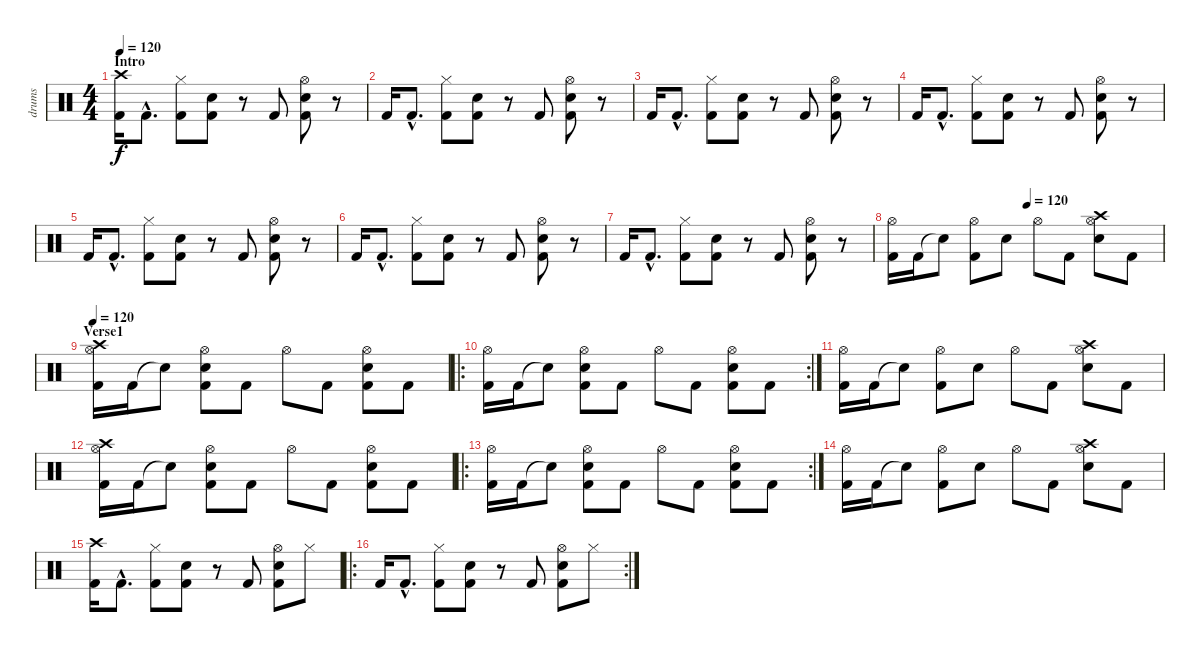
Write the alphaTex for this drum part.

\track ("drums" "drums") {instrument percussion}
\staff {score}
\articulation defaults
\ts (4 4)
\section ("" "Intro")
\tempo 120
\clef neutral
\ks c
("Crash high (hit)" "Kick (hit) 2").16{dy f} "Kick (hit) 2"{hac}.8{d} ("Hi-Hat (closed)" "Kick (hit) 2").8 ("Electric Snare (hit)" "Kick (hit) 2").8 r.8 "Kick (hit) 2".8 ("Hi-Hat (open)" "Electric Snare (hit)" "Kick (hit) 2").8 r.8 |
"Kick (hit) 2".16 "Kick (hit) 2"{hac}.8{d} ("Hi-Hat (closed)" "Kick (hit) 2").8 ("Electric Snare (hit)" "Kick (hit) 2").8 r.8 "Kick (hit) 2".8 ("Hi-Hat (open)" "Electric Snare (hit)" "Kick (hit) 2").8 r.8 |
"Kick (hit) 2".16 "Kick (hit) 2"{hac}.8{d} ("Hi-Hat (closed)" "Kick (hit) 2").8 ("Electric Snare (hit)" "Kick (hit) 2").8 r.8 "Kick (hit) 2".8 ("Hi-Hat (open)" "Electric Snare (hit)" "Kick (hit) 2").8 r.8 |
"Kick (hit) 2".16 "Kick (hit) 2"{hac}.8{d} ("Hi-Hat (closed)" "Kick (hit) 2").8 ("Electric Snare (hit)" "Kick (hit) 2").8 r.8 "Kick (hit) 2".8 ("Hi-Hat (open)" "Electric Snare (hit)" "Kick (hit) 2").8 r.8 |
"Kick (hit) 2".16 "Kick (hit) 2"{hac}.8{d} ("Hi-Hat (closed)" "Kick (hit) 2").8 ("Electric Snare (hit)" "Kick (hit) 2").8 r.8 "Kick (hit) 2".8 ("Hi-Hat (open)" "Electric Snare (hit)" "Kick (hit) 2").8 r.8 |
"Kick (hit) 2".16 "Kick (hit) 2"{hac}.8{d} ("Hi-Hat (closed)" "Kick (hit) 2").8 ("Electric Snare (hit)" "Kick (hit) 2").8 r.8 "Kick (hit) 2".8 ("Hi-Hat (open)" "Electric Snare (hit)" "Kick (hit) 2").8 r.8 |
"Kick (hit) 2".16 "Kick (hit) 2"{hac}.8{d} ("Hi-Hat (closed)" "Kick (hit) 2").8 ("Electric Snare (hit)" "Kick (hit) 2").8 r.8 "Kick (hit) 2".8 ("Hi-Hat (open)" "Electric Snare (hit)" "Kick (hit) 2").8 r.8 |
\tempo (120 0.5)
("Hi-Hat (open)" "Kick (hit) 2").16 "Kick (hit) 2".16 "Snare (hit)"{t}.8 ("Hi-Hat (open)" "Kick (hit) 2").8 "Electric Snare (hit)".8 "Hi-Hat (open)".8 "Kick (hit) 2".8 ("Crash high (hit)" "Hi-Hat (open)" "Electric Snare (hit)").8 "Kick (hit) 2".8 |
\section ("" "Verse1")
\tempo 120
("Crash high (hit)" "Hi-Hat (open)" "Kick (hit) 2").16 "Kick (hit) 2".16 "Snare (hit)"{t}.8 ("Hi-Hat (open)" "Electric Snare (hit)" "Kick (hit) 2").8 "Kick (hit) 2".8 "Hi-Hat (open)".8 "Kick (hit) 2".8 ("Hi-Hat (open)" "Electric Snare (hit)" "Kick (hit) 2").8 "Kick (hit) 2".8 |
\ro
\rc 2
("Hi-Hat (open)" "Kick (hit) 2").16 "Kick (hit) 2".16 "Snare (hit)"{t}.8 ("Hi-Hat (open)" "Electric Snare (hit)" "Kick (hit) 2").8 "Kick (hit) 2".8 "Hi-Hat (open)".8 "Kick (hit) 2".8 ("Hi-Hat (open)" "Electric Snare (hit)" "Kick (hit) 2").8 "Kick (hit) 2".8 |
("Hi-Hat (open)" "Kick (hit) 2").16 "Kick (hit) 2".16 "Snare (hit)"{t}.8 ("Hi-Hat (open)" "Kick (hit) 2").8 "Electric Snare (hit)".8 "Hi-Hat (open)".8 "Kick (hit) 2".8 ("Crash high (hit)" "Hi-Hat (open)" "Electric Snare (hit)").8 "Kick (hit) 2".8 |
("Crash high (hit)" "Hi-Hat (open)" "Kick (hit) 2").16 "Kick (hit) 2".16 "Snare (hit)"{t}.8 ("Hi-Hat (open)" "Electric Snare (hit)" "Kick (hit) 2").8 "Kick (hit) 2".8 "Hi-Hat (open)".8 "Kick (hit) 2".8 ("Hi-Hat (open)" "Electric Snare (hit)" "Kick (hit) 2").8 "Kick (hit) 2".8 |
\ro
\rc 2
("Hi-Hat (open)" "Kick (hit) 2").16 "Kick (hit) 2".16 "Snare (hit)"{t}.8 ("Hi-Hat (open)" "Electric Snare (hit)" "Kick (hit) 2").8 "Kick (hit) 2".8 "Hi-Hat (open)".8 "Kick (hit) 2".8 ("Hi-Hat (open)" "Electric Snare (hit)" "Kick (hit) 2").8 "Kick (hit) 2".8 |
("Hi-Hat (open)" "Kick (hit) 2").16 "Kick (hit) 2".16 "Snare (hit)"{t}.8 ("Hi-Hat (open)" "Kick (hit) 2").8 "Electric Snare (hit)".8 "Hi-Hat (open)".8 "Kick (hit) 2".8 ("Crash high (hit)" "Hi-Hat (open)" "Electric Snare (hit)").8 "Kick (hit) 2".8 |
("Crash high (hit)" "Kick (hit) 2").16 "Kick (hit) 2"{hac}.8{d} ("Hi-Hat (closed)" "Kick (hit) 2").8 ("Electric Snare (hit)" "Kick (hit) 2").8 r.8 "Kick (hit) 2".8 ("Hi-Hat (open)" "Electric Snare (hit)" "Kick (hit) 2").8 "Hi-Hat (closed)".8 |
\ro
\rc 2 "Kick (hit) 2".16 "Kick (hit) 2"{hac}.8{d}
("Hi-Hat (closed)" "Kick (hit) 2").8 ("Electric Snare (hit)" "Kick (hit) 2").8 r.8 "Kick (hit) 2".8 ("Hi-Hat (open)" "Electric Snare (hit)" "Kick (hit) 2").8 "Hi-Hat (closed)".8
